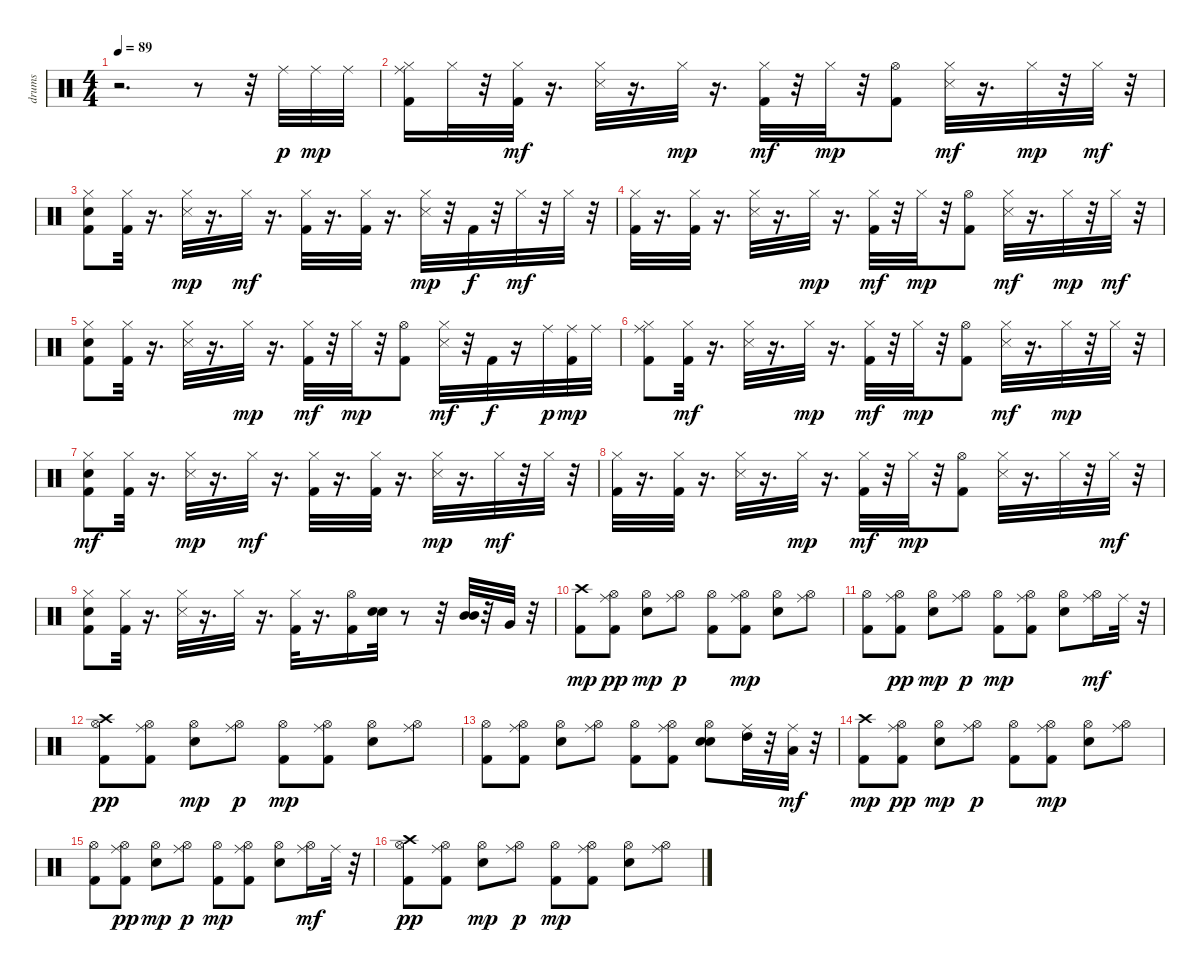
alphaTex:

\track ("drums" "drums") {instrument percussion}
\staff {score}
\articulation defaults
\ts (4 4)
\tempo 89
\clef neutral
\ks c
r.2{d dy p} r.8 r.32 "Ride (middle)".32 "Ride (middle)".32{dy mp} "Ride (middle)".32 |
("Kick (hit) 2" "Hi-Hat (closed)" "Ride (middle)").16 "Hi-Hat (closed)".32 r.32 ("Kick (hit) 2" "Hi-Hat (closed)").32{dy mf} r.16{d} ("Snare (side stick) 3" "Hi-Hat (closed)").32 r.16{d} "Hi-Hat (closed)".32{dy mp} r.16{d} ("Kick (hit) 2" "Hi-Hat (closed)").32{dy mf} r.32 "Hi-Hat (closed)".32{dy mp} r.32 ("Kick (hit) 2" "Hi-Hat (open)").8 ("Snare (side stick) 3" "Hi-Hat (closed)").32{dy mf} r.16{d} "Hi-Hat (closed)".32{dy mp} r.32 "Hi-Hat (closed)".32{dy mf} r.32 |
("Snare (hit)" "Kick (hit) 2" "Hi-Hat (closed)").8 ("Kick (hit) 2" "Hi-Hat (closed)").32 r.16{d} ("Snare (side stick) 3" "Hi-Hat (closed)").32{dy mp} r.16{d} "Hi-Hat (closed)".32{dy mf} r.16{d} ("Kick (hit) 2" "Hi-Hat (closed)").32 r.16{d} ("Kick (hit) 2" "Hi-Hat (closed)").32 r.16{d} ("Snare (side stick) 3" "Hi-Hat (closed)").32{dy mp} r.32 "Kick (hit) 2".32{dy f} r.32 "Hi-Hat (closed)".32{dy mf} r.32 "Hi-Hat (closed)".32 r.32 |
("Kick (hit) 2" "Hi-Hat (closed)").32 r.16{d} ("Kick (hit) 2" "Hi-Hat (closed)").32 r.16{d} ("Snare (side stick) 3" "Hi-Hat (closed)").32 r.16{d} "Hi-Hat (closed)".32{dy mp} r.16{d} ("Kick (hit) 2" "Hi-Hat (closed)").32{dy mf} r.32 "Hi-Hat (closed)".32{dy mp} r.32 ("Kick (hit) 2" "Hi-Hat (open)").8 ("Snare (side stick) 3" "Hi-Hat (closed)").32{dy mf} r.16{d} "Hi-Hat (closed)".32{dy mp} r.32 "Hi-Hat (closed)".32{dy mf} r.32 |
("Snare (hit)" "Kick (hit) 2" "Hi-Hat (closed)").8 ("Kick (hit) 2" "Hi-Hat (closed)").32 r.16{d} ("Snare (side stick) 3" "Hi-Hat (closed)").32 r.16{d} "Hi-Hat (closed)".32{dy mp} r.16{d} ("Kick (hit) 2" "Hi-Hat (closed)").32{dy mf} r.32 "Hi-Hat (closed)".32{dy mp} r.32 ("Kick (hit) 2" "Hi-Hat (open)").8 ("Snare (side stick) 3" "Hi-Hat (closed)").32{dy mf} r.32 "Kick (hit) 2".32{dy f} r.16 "Ride (middle)".32{dy p} ("Kick (hit) 2" "Ride (middle)").32{dy mp} "Ride (middle)".32 |
("Kick (hit) 2" "Hi-Hat (closed)" "Ride (middle)").8 ("Kick (hit) 2" "Hi-Hat (closed)").32{dy mf} r.16{d} ("Snare (side stick) 3" "Hi-Hat (closed)").32 r.16{d} "Hi-Hat (closed)".32{dy mp} r.16{d} ("Kick (hit) 2" "Hi-Hat (closed)").32{dy mf} r.32 "Hi-Hat (closed)".32{dy mp} r.32 ("Kick (hit) 2" "Hi-Hat (open)").8 ("Snare (side stick) 3" "Hi-Hat (closed)").32{dy mf} r.16{d} "Hi-Hat (closed)".32{dy mp} r.32 "Hi-Hat (closed)".32 r.32 |
("Snare (hit)" "Kick (hit) 2" "Hi-Hat (closed)").8{dy mf} ("Kick (hit) 2" "Hi-Hat (closed)").32 r.16{d} ("Snare (side stick) 3" "Hi-Hat (closed)").32{dy mp} r.16{d} "Hi-Hat (closed)".32{dy mf} r.16{d} ("Kick (hit) 2" "Hi-Hat (closed)").32 r.16{d} ("Kick (hit) 2" "Hi-Hat (closed)").32 r.16{d} ("Snare (side stick) 3" "Hi-Hat (closed)").32{dy mp} r.16{d} "Hi-Hat (closed)".32{dy mf} r.32 "Hi-Hat (closed)".32 r.32 |
("Kick (hit) 2" "Hi-Hat (closed)").32 r.16{d} ("Kick (hit) 2" "Hi-Hat (closed)").32 r.16{d} ("Snare (side stick) 3" "Hi-Hat (closed)").32 r.16{d} "Hi-Hat (closed)".32{dy mp} r.16{d} ("Kick (hit) 2" "Hi-Hat (closed)").32{dy mf} r.32 "Hi-Hat (closed)".32{dy mp} r.32 ("Kick (hit) 2" "Hi-Hat (open)").8 ("Snare (side stick) 3" "Hi-Hat (closed)").32 r.16{d} "Hi-Hat (closed)".32 r.32 "Hi-Hat (closed)".32{dy mf} r.32 |
("Snare (hit)" "Kick (hit) 2" "Hi-Hat (closed)").8 ("Kick (hit) 2" "Hi-Hat (closed)").32 r.16{d} ("Snare (side stick) 3" "Hi-Hat (closed)").32 r.16{d} "Hi-Hat (closed)".32 r.16{d} ("Kick (hit) 2" "Hi-Hat (closed)").32 r.16{d} ("Kick (hit) 2" "Hi-Hat (open)").16 ("Snare (hit) 2" "Snare (hit) 2").32 r.8 r.32 ("Mid Tom (hit)" "Mid Tom (hit)").32 r.32 "Very Low Tom (hit)".32 r.32 |
("Kick (hit) 2" "Crash high (hit)").8{dy mp} ("Kick (hit) 2" "Hi-Hat (open)" "Ride (middle)").8{dy pp} ("Snare (hit) 2" "Hi-Hat (open)").8{dy mp} ("Hi-Hat (open)" "Ride (middle)").8{dy p} ("Kick (hit) 2" "Hi-Hat (open)").8 ("Kick (hit) 2" "Hi-Hat (open)" "Ride (middle)").8{dy mp} ("Snare (hit) 2" "Hi-Hat (open)").8 ("Hi-Hat (open)" "Ride (middle)").8 |
("Kick (hit) 2" "Hi-Hat (open)").8 ("Kick (hit) 2" "Hi-Hat (open)" "Ride (middle)").8{dy pp} ("Snare (hit) 2" "Hi-Hat (open)").8{dy mp} ("Hi-Hat (open)" "Ride (middle)").8{dy p} ("Kick (hit) 2" "Hi-Hat (open)").8{dy mp} ("Kick (hit) 2" "Hi-Hat (open)" "Ride (middle)").8 ("Snare (hit) 2" "Hi-Hat (open)").8 ("Hi-Hat (open)" "Ride (middle)").16{dy mf} "Ride (middle)".32 r.32 |
("Kick (hit) 2" "Hi-Hat (open)" "Crash high (hit)").8{dy pp} ("Kick (hit) 2" "Hi-Hat (open)" "Ride (middle)").8 ("Snare (hit) 2" "Hi-Hat (open)").8{dy mp} ("Hi-Hat (open)" "Ride (middle)").8{dy p} ("Kick (hit) 2" "Hi-Hat (open)").8{dy mp} ("Kick (hit) 2" "Hi-Hat (open)" "Ride (middle)").8 ("Snare (hit) 2" "Hi-Hat (open)").8 ("Hi-Hat (open)" "Ride (middle)").8 |
("Kick (hit) 2" "Hi-Hat (open)").8 ("Kick (hit) 2" "Hi-Hat (open)" "Ride (middle)").8 ("Snare (hit) 2" "Hi-Hat (open)").8 ("Hi-Hat (open)" "Ride (middle)").8 ("Kick (hit) 2" "Hi-Hat (open)").8 ("Kick (hit) 2" "Hi-Hat (open)" "Ride (middle)").8 ("Snare (hit) 2" "Snare (hit) 2" "Hi-Hat (open)").8 ("High Tom (hit)" "Ride (middle)").32 r.32 ("Low Tom (hit)" "Ride (middle)").32{dy mf} r.32 |
("Kick (hit) 2" "Crash high (hit)").8{dy mp} ("Kick (hit) 2" "Hi-Hat (open)" "Ride (middle)").8{dy pp} ("Snare (hit) 2" "Hi-Hat (open)").8{dy mp} ("Hi-Hat (open)" "Ride (middle)").8{dy p} ("Kick (hit) 2" "Hi-Hat (open)").8 ("Kick (hit) 2" "Hi-Hat (open)" "Ride (middle)").8{dy mp} ("Snare (hit) 2" "Hi-Hat (open)").8 ("Hi-Hat (open)" "Ride (middle)").8 |
("Kick (hit) 2" "Hi-Hat (open)").8 ("Kick (hit) 2" "Hi-Hat (open)" "Ride (middle)").8{dy pp} ("Snare (hit) 2" "Hi-Hat (open)").8{dy mp} ("Hi-Hat (open)" "Ride (middle)").8{dy p} ("Kick (hit) 2" "Hi-Hat (open)").8{dy mp} ("Kick (hit) 2" "Hi-Hat (open)" "Ride (middle)").8 ("Snare (hit) 2" "Hi-Hat (open)").8 ("Hi-Hat (open)" "Ride (middle)").16{dy mf} "Ride (middle)".32 r.32 |
("Kick (hit) 2" "Hi-Hat (open)" "Crash high (hit)").8{dy pp} ("Kick (hit) 2" "Hi-Hat (open)" "Ride (middle)").8 ("Snare (hit) 2" "Hi-Hat (open)").8{dy mp} ("Hi-Hat (open)" "Ride (middle)").8{dy p} ("Kick (hit) 2" "Hi-Hat (open)").8{dy mp} ("Kick (hit) 2" "Hi-Hat (open)" "Ride (middle)").8 ("Snare (hit) 2" "Hi-Hat (open)").8 ("Hi-Hat (open)" "Ride (middle)").8
